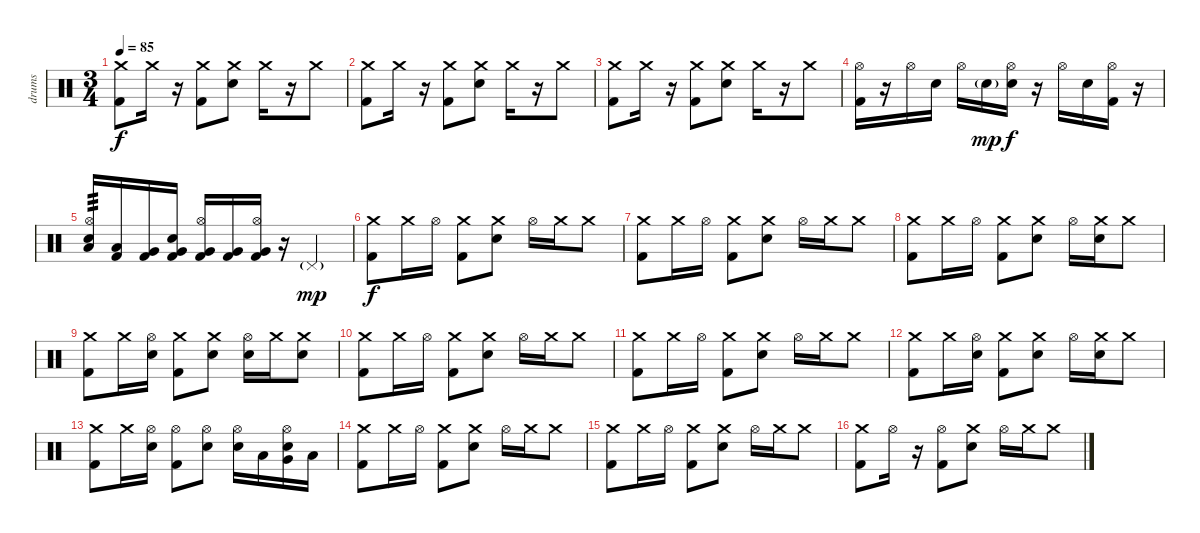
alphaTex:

\track ("drums" "drums") {instrument percussion}
\staff {score}
\articulation defaults
\ts (3 4)
\tempo 85
\clef neutral
\ks c
("Crash medium (hit)" "Kick (hit) 2").8{dy f} "Crash medium (hit)".16 r.16 ("Kick (hit) 2" "Crash medium (hit)").8 ("Snare (hit) 2" "Crash medium (hit)").8 "Crash medium (hit)".16 r.16 "Crash medium (hit)".8 |
("Crash medium (hit)" "Kick (hit) 2").8 "Crash medium (hit)".16 r.16 ("Kick (hit) 2" "Crash medium (hit)").8 ("Snare (hit) 2" "Crash medium (hit)").8 "Crash medium (hit)".16 r.16 "Crash medium (hit)".8 |
("Crash medium (hit)" "Kick (hit) 2").8 "Crash medium (hit)".16 r.16 ("Kick (hit) 2" "Crash medium (hit)").8 ("Snare (hit) 2" "Crash medium (hit)").8 "Crash medium (hit)".16 r.16 "Crash medium (hit)".8 |
("Kick (hit) 2" "Hi-Hat (open)").16 r.16 "Hi-Hat (open)".16 "Snare (hit) 2".16 "Hi-Hat (open)".16 "Snare (hit) 2"{g}.16{dy mp} ("Snare (hit) 2" "Hi-Hat (open)").16{dy f} r.16 "Hi-Hat (open)".16 "Snare (hit) 2".16 ("Kick (hit) 2" "Hi-Hat (open)").16 r.16 |
("Hi-Hat (open)" "Snare (hit) 2" "Low Floor Tom (hit)").16{tp 3} ("Kick (hit) 2" "Low Floor Tom (hit)").16 ("Kick (hit) 2" "Very Low Tom (hit)").16 ("Snare (hit) 2" "Kick (hit) 2" "Very Low Tom (hit)").16 ("Hi-Hat (open)" "Kick (hit) 2" "Very Low Tom (hit)").16 ("Kick (hit) 2" "Very Low Tom (hit)").16 ("Hi-Hat (open)" "Very Low Tom (hit)" "Kick (hit) 2").16 r.16 "Pedal Hi-Hat (hit)"{g}.4{dy mp} |
("Crash medium (hit)" "Kick (hit) 2").8{dy f} "Crash medium (hit)".16 "Hi-Hat (open)".16 ("Kick (hit) 2" "Crash medium (hit)").8 ("Snare (hit) 2" "Crash medium (hit)").8 "Hi-Hat (open)".16 "Crash medium (hit)".16 "Crash medium (hit)".8 |
("Crash medium (hit)" "Kick (hit) 2").8 "Crash medium (hit)".16 "Hi-Hat (open)".16 ("Kick (hit) 2" "Crash medium (hit)").8 ("Snare (hit) 2" "Crash medium (hit)").8 "Hi-Hat (open)".16 "Crash medium (hit)".16 "Crash medium (hit)".8 |
("Crash medium (hit)" "Kick (hit) 2").8 "Crash medium (hit)".16 "Hi-Hat (open)".16 ("Kick (hit) 2" "Crash medium (hit)").8 ("Snare (hit) 2" "Crash medium (hit)").8 "Hi-Hat (open)".16 ("Snare (hit) 2" "Crash medium (hit)").16 "Crash medium (hit)".8 |
("Crash medium (hit)" "Kick (hit) 2").8 "Crash medium (hit)".16 ("Snare (hit) 2" "Hi-Hat (open)").16 ("Kick (hit) 2" "Crash medium (hit)").8 ("Snare (hit) 2" "Crash medium (hit)").8 ("Snare (hit) 2" "Hi-Hat (open)").16 "Crash medium (hit)".16 ("Snare (hit) 2" "Crash medium (hit)").8 |
("Crash medium (hit)" "Kick (hit) 2").8 "Crash medium (hit)".16 "Hi-Hat (open)".16 ("Kick (hit) 2" "Crash medium (hit)").8 ("Snare (hit) 2" "Crash medium (hit)").8 "Hi-Hat (open)".16 "Crash medium (hit)".16 "Crash medium (hit)".8 |
("Crash medium (hit)" "Kick (hit) 2").8 "Crash medium (hit)".16 "Hi-Hat (open)".16 ("Kick (hit) 2" "Crash medium (hit)").8 ("Snare (hit) 2" "Crash medium (hit)").8 "Hi-Hat (open)".16 "Crash medium (hit)".16 "Crash medium (hit)".8 |
("Crash medium (hit)" "Kick (hit) 2").8 "Crash medium (hit)".16 ("Snare (hit) 2" "Hi-Hat (open)").16 ("Kick (hit) 2" "Crash medium (hit)").8 ("Snare (hit) 2" "Crash medium (hit)").8 "Hi-Hat (open)".16 ("Snare (hit) 2" "Crash medium (hit)").16 "Crash medium (hit)".8 |
("Crash medium (hit)" "Kick (hit) 2").8 "Crash medium (hit)".16 ("Snare (hit) 2" "Hi-Hat (open)").16 ("Kick (hit) 2" "Hi-Hat (open)").8 ("Snare (hit) 2" "Hi-Hat (open)").8 ("Snare (hit) 2" "Hi-Hat (open)").16 "Low Floor Tom (hit)".16 ("Snare (hit) 2" "Very Low Tom (hit)" "Hi-Hat (open)").16 "Low Floor Tom (hit)".16 |
("Crash medium (hit)" "Kick (hit) 2").8 "Crash medium (hit)".16 "Hi-Hat (open)".16 ("Kick (hit) 2" "Crash medium (hit)").8 ("Snare (hit) 2" "Crash medium (hit)").8 "Hi-Hat (open)".16 "Crash medium (hit)".16 "Crash medium (hit)".8 |
("Crash medium (hit)" "Kick (hit) 2").8 "Crash medium (hit)".16 "Hi-Hat (open)".16 ("Kick (hit) 2" "Crash medium (hit)").8 ("Snare (hit) 2" "Crash medium (hit)").8 "Hi-Hat (open)".16 "Crash medium (hit)".16 "Crash medium (hit)".8 |
("Crash medium (hit)" "Kick (hit) 2").8 "Hi-Hat (open)".16 r.16 ("Kick (hit) 2" "Hi-Hat (open)").8 ("Snare (hit) 2" "Crash medium (hit)").8 "Hi-Hat (open)".16 "Crash medium (hit)".16 "Crash medium (hit)".8
